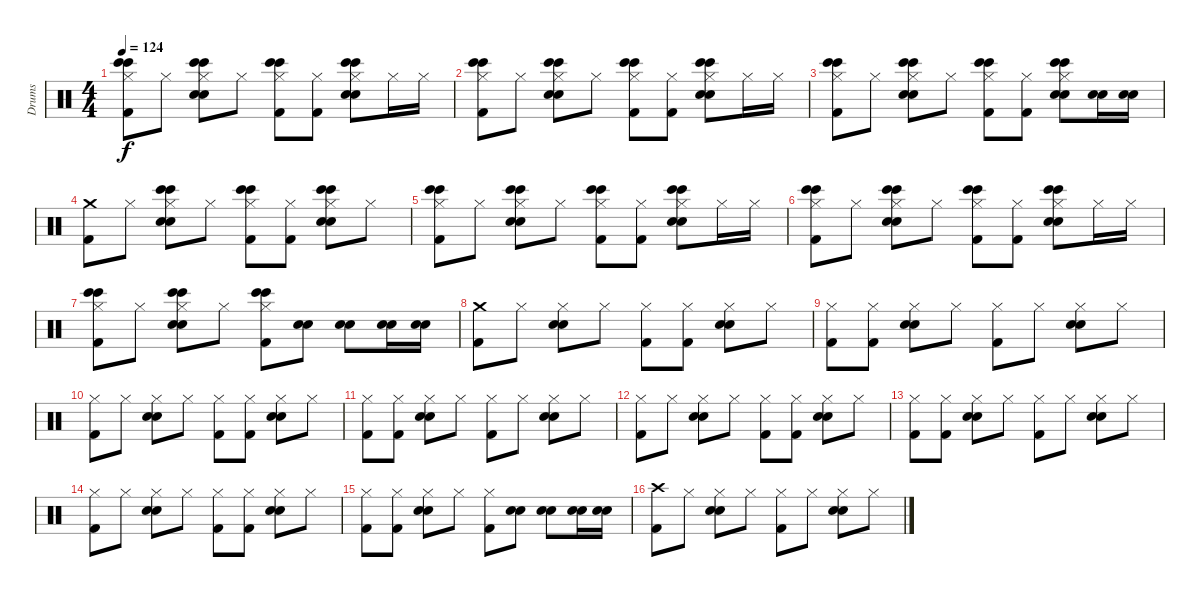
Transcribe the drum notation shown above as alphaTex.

\track ("Drums" "Drums") {instrument percussion}
\staff {score}
\articulation defaults
\ts (4 4)
\tempo 124
\clef neutral
\ks c
("Bongo High (hit)" "Bongo High (hit)" "Hi-Hat (closed)" "Kick (hit) 2").8{dy f} "Hi-Hat (closed)".8 ("Bongo High (hit)" "Electric Snare (hit)" "Snare (hit) 2" "Bongo High (hit)" "Hi-Hat (closed)").8 "Hi-Hat (closed)".8 ("Bongo High (hit)" "Kick (hit) 2" "Bongo High (hit)" "Hi-Hat (closed)").8 ("Kick (hit) 2" "Hi-Hat (closed)").8 ("Bongo High (hit)" "Electric Snare (hit)" "Snare (hit) 2" "Bongo High (hit)" "Hi-Hat (closed)").8 "Hi-Hat (closed)".16 "Hi-Hat (closed)".16 |
("Bongo High (hit)" "Bongo High (hit)" "Hi-Hat (closed)" "Kick (hit) 2").8 "Hi-Hat (closed)".8 ("Bongo High (hit)" "Electric Snare (hit)" "Snare (hit) 2" "Bongo High (hit)" "Hi-Hat (closed)").8 "Hi-Hat (closed)".8 ("Bongo High (hit)" "Kick (hit) 2" "Bongo High (hit)" "Hi-Hat (closed)").8 ("Kick (hit) 2" "Hi-Hat (closed)").8 ("Bongo High (hit)" "Electric Snare (hit)" "Snare (hit) 2" "Bongo High (hit)" "Hi-Hat (closed)").8 "Hi-Hat (closed)".16 "Hi-Hat (closed)".16 |
("Bongo High (hit)" "Bongo High (hit)" "Hi-Hat (closed)" "Kick (hit) 2").8 "Hi-Hat (closed)".8 ("Bongo High (hit)" "Electric Snare (hit)" "Snare (hit) 2" "Bongo High (hit)" "Hi-Hat (closed)").8 "Hi-Hat (closed)".8 ("Bongo High (hit)" "Kick (hit) 2" "Bongo High (hit)" "Hi-Hat (closed)").8 ("Kick (hit) 2" "Hi-Hat (closed)").8 ("Bongo High (hit)" "Electric Snare (hit)" "Snare (hit) 2" "Bongo High (hit)" "Hi-Hat (closed)").8 ("Snare (hit) 2" "Electric Snare (hit)").16 ("Snare (hit) 2" "Electric Snare (hit)").16 |
("Kick (hit) 2" "Crash medium (hit)").8 "Hi-Hat (closed)".8 ("Snare (hit) 2" "Bongo High (hit)" "Electric Snare (hit)" "Bongo High (hit)" "Hi-Hat (closed)").8 "Hi-Hat (closed)".8 ("Kick (hit) 2" "Bongo High (hit)" "Bongo High (hit)" "Hi-Hat (closed)").8 ("Kick (hit) 2" "Hi-Hat (closed)").8 ("Electric Snare (hit)" "Bongo High (hit)" "Snare (hit) 2" "Bongo High (hit)" "Hi-Hat (closed)").8 "Hi-Hat (closed)".8 |
("Bongo High (hit)" "Bongo High (hit)" "Hi-Hat (closed)" "Kick (hit) 2").8 "Hi-Hat (closed)".8 ("Bongo High (hit)" "Electric Snare (hit)" "Snare (hit) 2" "Bongo High (hit)" "Hi-Hat (closed)").8 "Hi-Hat (closed)".8 ("Bongo High (hit)" "Kick (hit) 2" "Bongo High (hit)" "Hi-Hat (closed)").8 ("Kick (hit) 2" "Hi-Hat (closed)").8 ("Bongo High (hit)" "Electric Snare (hit)" "Snare (hit) 2" "Bongo High (hit)" "Hi-Hat (closed)").8 "Hi-Hat (closed)".16 "Hi-Hat (closed)".16 |
("Bongo High (hit)" "Hi-Hat (closed)" "Bongo High (hit)" "Kick (hit) 2").8 "Hi-Hat (closed)".8 ("Electric Snare (hit)" "Bongo High (hit)" "Snare (hit) 2" "Bongo High (hit)" "Hi-Hat (closed)").8 "Hi-Hat (closed)".8 ("Bongo High (hit)" "Kick (hit) 2" "Bongo High (hit)" "Hi-Hat (closed)").8 ("Kick (hit) 2" "Hi-Hat (closed)").8 ("Electric Snare (hit)" "Bongo High (hit)" "Snare (hit) 2" "Bongo High (hit)" "Hi-Hat (closed)").8 "Hi-Hat (closed)".16 "Hi-Hat (closed)".16 |
("Bongo High (hit)" "Bongo High (hit)" "Hi-Hat (closed)" "Kick (hit) 2").8 "Hi-Hat (closed)".8 ("Bongo High (hit)" "Electric Snare (hit)" "Snare (hit) 2" "Bongo High (hit)" "Hi-Hat (closed)").8 "Hi-Hat (closed)".8 ("Bongo High (hit)" "Kick (hit) 2" "Bongo High (hit)" "Hi-Hat (closed)").8 ("Snare (hit) 2" "Electric Snare (hit)").8 ("Electric Snare (hit)" "Snare (hit) 2").8 ("Snare (hit) 2" "Electric Snare (hit)").16 ("Snare (hit) 2" "Electric Snare (hit)").16 |
("Kick (hit) 2" "Crash medium (hit)").8 "Hi-Hat (closed)".8 ("Electric Snare (hit)" "Snare (hit) 2" "Hi-Hat (closed)").8 "Hi-Hat (closed)".8 ("Kick (hit) 2" "Hi-Hat (closed)").8 ("Kick (hit) 2" "Hi-Hat (closed)").8 ("Electric Snare (hit)" "Snare (hit) 2" "Hi-Hat (closed)").8 "Hi-Hat (closed)".8 |
("Kick (hit) 2" "Hi-Hat (closed)").8 ("Kick (hit) 2" "Hi-Hat (closed)").8 ("Snare (hit) 2" "Electric Snare (hit)" "Hi-Hat (closed)").8 "Hi-Hat (closed)".8 ("Kick (hit) 2" "Hi-Hat (closed)").8 "Hi-Hat (closed)".8 ("Snare (hit) 2" "Electric Snare (hit)" "Hi-Hat (closed)").8 "Hi-Hat (closed)".8 |
("Hi-Hat (closed)" "Kick (hit) 2").8 "Hi-Hat (closed)".8 ("Snare (hit) 2" "Electric Snare (hit)" "Hi-Hat (closed)").8 "Hi-Hat (closed)".8 ("Kick (hit) 2" "Hi-Hat (closed)").8 ("Kick (hit) 2" "Hi-Hat (closed)").8 ("Snare (hit) 2" "Electric Snare (hit)" "Hi-Hat (closed)").8 "Hi-Hat (closed)".8 |
("Kick (hit) 2" "Hi-Hat (closed)").8 ("Kick (hit) 2" "Hi-Hat (closed)").8 ("Snare (hit) 2" "Electric Snare (hit)" "Hi-Hat (closed)").8 "Hi-Hat (closed)".8 ("Kick (hit) 2" "Hi-Hat (closed)").8 "Hi-Hat (closed)".8 ("Snare (hit) 2" "Electric Snare (hit)" "Hi-Hat (closed)").8 "Hi-Hat (closed)".8 |
("Hi-Hat (closed)" "Kick (hit) 2").8 "Hi-Hat (closed)".8 ("Snare (hit) 2" "Electric Snare (hit)" "Hi-Hat (closed)").8 "Hi-Hat (closed)".8 ("Kick (hit) 2" "Hi-Hat (closed)").8 ("Kick (hit) 2" "Hi-Hat (closed)").8 ("Snare (hit) 2" "Electric Snare (hit)" "Hi-Hat (closed)").8 "Hi-Hat (closed)".8 |
("Kick (hit) 2" "Hi-Hat (closed)").8 ("Kick (hit) 2" "Hi-Hat (closed)").8 ("Snare (hit) 2" "Electric Snare (hit)" "Hi-Hat (closed)").8 "Hi-Hat (closed)".8 ("Kick (hit) 2" "Hi-Hat (closed)").8 "Hi-Hat (closed)".8 ("Snare (hit) 2" "Electric Snare (hit)" "Hi-Hat (closed)").8 "Hi-Hat (closed)".8 |
("Hi-Hat (closed)" "Kick (hit) 2").8 "Hi-Hat (closed)".8 ("Snare (hit) 2" "Electric Snare (hit)" "Hi-Hat (closed)").8 "Hi-Hat (closed)".8 ("Kick (hit) 2" "Hi-Hat (closed)").8 ("Kick (hit) 2" "Hi-Hat (closed)").8 ("Snare (hit) 2" "Electric Snare (hit)" "Hi-Hat (closed)").8 "Hi-Hat (closed)".8 |
("Kick (hit) 2" "Hi-Hat (closed)").8 ("Kick (hit) 2" "Hi-Hat (closed)").8 ("Snare (hit) 2" "Electric Snare (hit)" "Hi-Hat (closed)").8 "Hi-Hat (closed)".8 ("Kick (hit) 2" "Hi-Hat (closed)").8 ("Snare (hit) 2" "Electric Snare (hit)").8 ("Snare (hit) 2" "Electric Snare (hit)").8 ("Snare (hit) 2" "Electric Snare (hit)").16 ("Electric Snare (hit)" "Snare (hit) 2").16 |
("Kick (hit) 2" "Crash high (hit)").8 "Hi-Hat (closed)".8 ("Electric Snare (hit)" "Snare (hit) 2" "Hi-Hat (closed)").8 "Hi-Hat (closed)".8 ("Kick (hit) 2" "Hi-Hat (closed)").8 "Hi-Hat (closed)".8 ("Electric Snare (hit)" "Snare (hit) 2" "Hi-Hat (closed)").8 "Hi-Hat (closed)".8
